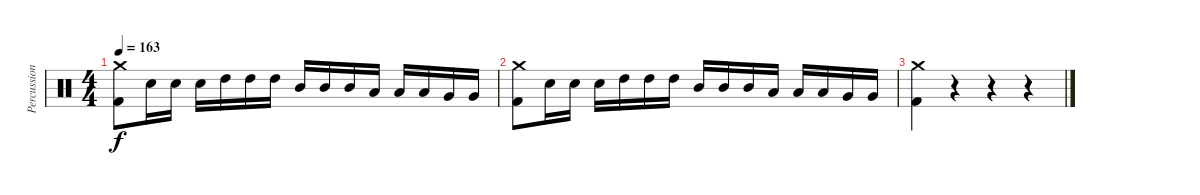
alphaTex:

\track ("Percussion" "Percussion") {instrument percussion}
\staff {score}
\articulation defaults
\ts (4 4)
\tempo 163
\clef neutral
\ks c
("Crash medium (hit)" "Kick (hit) 2").8{dy f} "Electric Snare (hit)".16 "Electric Snare (hit)".16 "Electric Snare (hit)".16 "High Tom (hit)".16 "High Tom (hit)".16 "High Tom (hit)".16 "Mid Tom (hit)".16 "Mid Tom (hit)".16 "Mid Tom (hit)".16 "Low Tom (hit)".16 "Low Tom (hit)".16 "Low Tom (hit)".16 "Very Low Tom (hit)".16 "Very Low Tom (hit)".16 |
("Crash medium (hit)" "Kick (hit) 2").8 "Electric Snare (hit)".16 "Electric Snare (hit)".16 "Electric Snare (hit)".16 "High Tom (hit)".16 "High Tom (hit)".16 "High Tom (hit)".16 "Mid Tom (hit)".16 "Mid Tom (hit)".16 "Mid Tom (hit)".16 "Low Tom (hit)".16 "Low Tom (hit)".16 "Low Tom (hit)".16 "Very Low Tom (hit)".16 "Very Low Tom (hit)".16 |
("Crash medium (hit)" "Kick (hit) 2").4 r.4 r.4 r.4
